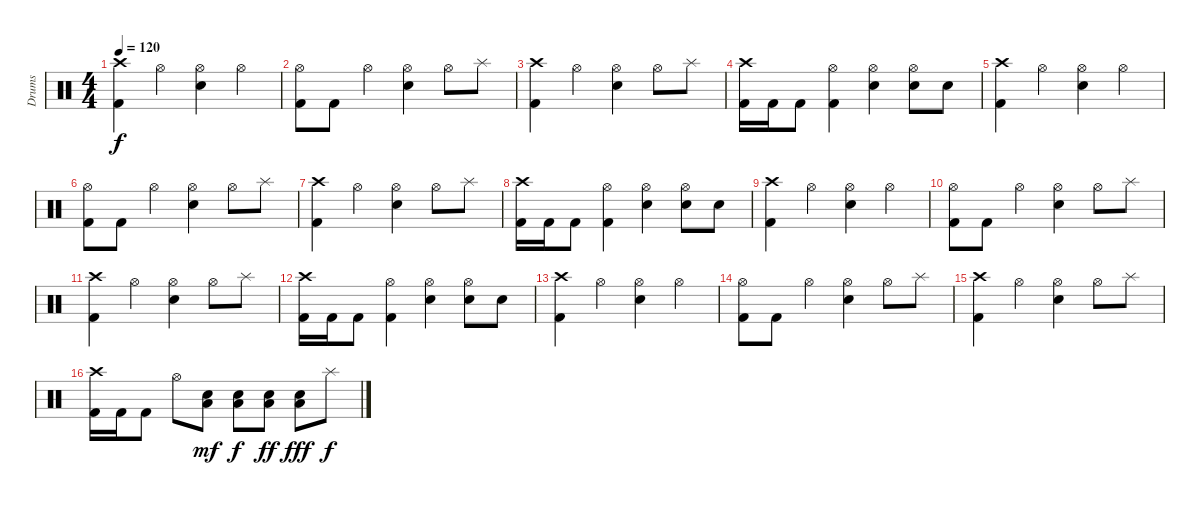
\track ("Drums" "Drums") {instrument percussion}
\staff {score}
\articulation defaults
\ts (4 4)
\tempo 120
\clef neutral
\ks c
("Crash high (hit)" "Kick (hit) 2").4{dy f} "Hi-Hat (open)".4 ("Hi-Hat (open)" "Snare (hit) 2").4 "Hi-Hat (open)".4 |
("Hi-Hat (open)" "Kick (hit) 2").8 "Kick (hit) 2".8 "Hi-Hat (open)".4 ("Hi-Hat (open)" "Snare (hit) 2").4 "Hi-Hat (open)".8 "Splash (hit)".8 |
("Crash high (hit)" "Kick (hit) 2").4 "Hi-Hat (open)".4 ("Hi-Hat (open)" "Snare (hit) 2").4 "Hi-Hat (open)".8 "Splash (hit)".8 |
("Crash high (hit)" "Kick (hit) 2").16 "Kick (hit) 2".16 "Kick (hit) 2".8 ("Hi-Hat (open)" "Kick (hit) 2").4 ("Hi-Hat (open)" "Snare (hit) 2").4 ("Hi-Hat (open)" "Snare (hit) 2").8 "Snare (hit) 2".8 |
("Crash high (hit)" "Kick (hit) 2").4 "Hi-Hat (open)".4 ("Hi-Hat (open)" "Snare (hit) 2").4 "Hi-Hat (open)".4 |
("Hi-Hat (open)" "Kick (hit) 2").8 "Kick (hit) 2".8 "Hi-Hat (open)".4 ("Hi-Hat (open)" "Snare (hit) 2").4 "Hi-Hat (open)".8 "Splash (hit)".8 |
("Crash high (hit)" "Kick (hit) 2").4 "Hi-Hat (open)".4 ("Hi-Hat (open)" "Snare (hit) 2").4 "Hi-Hat (open)".8 "Splash (hit)".8 |
("Crash high (hit)" "Kick (hit) 2").16 "Kick (hit) 2".16 "Kick (hit) 2".8 ("Hi-Hat (open)" "Kick (hit) 2").4 ("Hi-Hat (open)" "Snare (hit) 2").4 ("Hi-Hat (open)" "Snare (hit) 2").8 "Snare (hit) 2".8 |
("Crash high (hit)" "Kick (hit) 2").4 "Hi-Hat (open)".4 ("Hi-Hat (open)" "Snare (hit) 2").4 "Hi-Hat (open)".4 |
("Hi-Hat (open)" "Kick (hit) 2").8 "Kick (hit) 2".8 "Hi-Hat (open)".4 ("Hi-Hat (open)" "Snare (hit) 2").4 "Hi-Hat (open)".8 "Splash (hit)".8 |
("Crash high (hit)" "Kick (hit) 2").4 "Hi-Hat (open)".4 ("Hi-Hat (open)" "Snare (hit) 2").4 "Hi-Hat (open)".8 "Splash (hit)".8 |
("Crash high (hit)" "Kick (hit) 2").16 "Kick (hit) 2".16 "Kick (hit) 2".8 ("Hi-Hat (open)" "Kick (hit) 2").4 ("Hi-Hat (open)" "Snare (hit) 2").4 ("Hi-Hat (open)" "Snare (hit) 2").8 "Snare (hit) 2".8 |
("Crash high (hit)" "Kick (hit) 2").4 "Hi-Hat (open)".4 ("Hi-Hat (open)" "Snare (hit) 2").4 "Hi-Hat (open)".4 |
("Hi-Hat (open)" "Kick (hit) 2").8 "Kick (hit) 2".8 "Hi-Hat (open)".4 ("Hi-Hat (open)" "Snare (hit) 2").4 "Hi-Hat (open)".8 "Splash (hit)".8 |
("Crash high (hit)" "Kick (hit) 2").4 "Hi-Hat (open)".4 ("Hi-Hat (open)" "Snare (hit) 2").4 "Hi-Hat (open)".8 "Splash (hit)".8 |
("Crash high (hit)" "Kick (hit) 2").16 "Kick (hit) 2".16 "Kick (hit) 2".8 "Hi-Hat (open)".8 ("Snare (hit) 2" "Low Floor Tom (hit)").8{dy mf} ("Snare (hit) 2" "Low Floor Tom (hit)").8{dy f} ("Snare (hit) 2" "Low Floor Tom (hit)").8{dy ff} ("Snare (hit) 2" "Low Floor Tom (hit)").8{dy fff} "Splash (hit)".8{dy f}
